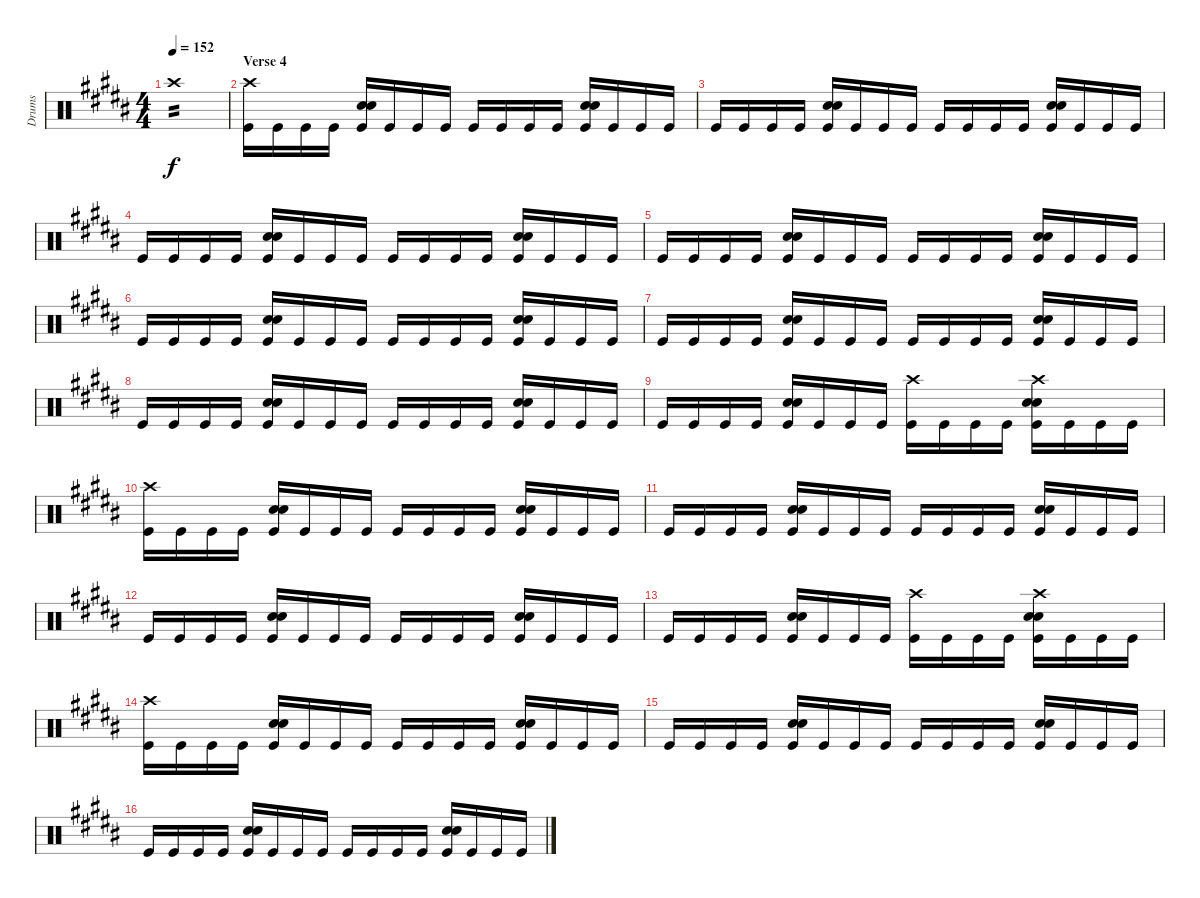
\track ("Drums" "Drums") {instrument percussion}
\staff {score}
\articulation defaults
\ts (4 4)
\tempo 152
\clef neutral
\ks b "Crash high (hit)".1{tp 2 dy f volume 16}
|
\section ("" "Verse 4")
("Crash high (hit)" "Kick (hit)").16 "Kick (hit)".16 "Kick (hit)".16 "Kick (hit)".16 ("Snare (hit) 2" "Electric Snare (hit)" "Kick (hit)").16 "Kick (hit)".16 "Kick (hit)".16 "Kick (hit)".16 "Kick (hit)".16 "Kick (hit)".16 "Kick (hit)".16 "Kick (hit)".16 ("Snare (hit) 2" "Electric Snare (hit)" "Kick (hit)").16 "Kick (hit)".16 "Kick (hit)".16 "Kick (hit)".16 |
"Kick (hit)".16 "Kick (hit)".16 "Kick (hit)".16 "Kick (hit)".16 ("Snare (hit) 2" "Electric Snare (hit)" "Kick (hit)").16 "Kick (hit)".16 "Kick (hit)".16 "Kick (hit)".16 "Kick (hit)".16 "Kick (hit)".16 "Kick (hit)".16 "Kick (hit)".16 ("Snare (hit) 2" "Electric Snare (hit)" "Kick (hit)").16 "Kick (hit)".16 "Kick (hit)".16 "Kick (hit)".16 |
"Kick (hit)".16 "Kick (hit)".16 "Kick (hit)".16 "Kick (hit)".16 ("Snare (hit) 2" "Electric Snare (hit)" "Kick (hit)").16 "Kick (hit)".16 "Kick (hit)".16 "Kick (hit)".16 "Kick (hit)".16 "Kick (hit)".16 "Kick (hit)".16 "Kick (hit)".16 ("Snare (hit) 2" "Electric Snare (hit)" "Kick (hit)").16 "Kick (hit)".16 "Kick (hit)".16 "Kick (hit)".16 |
"Kick (hit)".16 "Kick (hit)".16 "Kick (hit)".16 "Kick (hit)".16 ("Snare (hit) 2" "Electric Snare (hit)" "Kick (hit)").16 "Kick (hit)".16 "Kick (hit)".16 "Kick (hit)".16 "Kick (hit)".16 "Kick (hit)".16 "Kick (hit)".16 "Kick (hit)".16 ("Snare (hit) 2" "Electric Snare (hit)" "Kick (hit)").16 "Kick (hit)".16 "Kick (hit)".16 "Kick (hit)".16 |
"Kick (hit)".16 "Kick (hit)".16 "Kick (hit)".16 "Kick (hit)".16 ("Snare (hit) 2" "Electric Snare (hit)" "Kick (hit)").16 "Kick (hit)".16 "Kick (hit)".16 "Kick (hit)".16 "Kick (hit)".16 "Kick (hit)".16 "Kick (hit)".16 "Kick (hit)".16 ("Snare (hit) 2" "Electric Snare (hit)" "Kick (hit)").16 "Kick (hit)".16 "Kick (hit)".16 "Kick (hit)".16 |
"Kick (hit)".16 "Kick (hit)".16 "Kick (hit)".16 "Kick (hit)".16 ("Snare (hit) 2" "Electric Snare (hit)" "Kick (hit)").16 "Kick (hit)".16 "Kick (hit)".16 "Kick (hit)".16 "Kick (hit)".16 "Kick (hit)".16 "Kick (hit)".16 "Kick (hit)".16 ("Snare (hit) 2" "Electric Snare (hit)" "Kick (hit)").16 "Kick (hit)".16 "Kick (hit)".16 "Kick (hit)".16 |
"Kick (hit)".16 "Kick (hit)".16 "Kick (hit)".16 "Kick (hit)".16 ("Snare (hit) 2" "Electric Snare (hit)" "Kick (hit)").16 "Kick (hit)".16 "Kick (hit)".16 "Kick (hit)".16 "Kick (hit)".16 "Kick (hit)".16 "Kick (hit)".16 "Kick (hit)".16 ("Snare (hit) 2" "Electric Snare (hit)" "Kick (hit)").16 "Kick (hit)".16 "Kick (hit)".16 "Kick (hit)".16 |
"Kick (hit)".16 "Kick (hit)".16 "Kick (hit)".16 "Kick (hit)".16 ("Snare (hit) 2" "Electric Snare (hit)" "Kick (hit)").16 "Kick (hit)".16 "Kick (hit)".16 "Kick (hit)".16 ("Crash high (hit)" "Kick (hit)").16 "Kick (hit)".16 "Kick (hit)".16 "Kick (hit)".16 ("Crash high (hit)" "Snare (hit) 2" "Electric Snare (hit)" "Kick (hit)").16 "Kick (hit)".16 "Kick (hit)".16 "Kick (hit)".16 |
("Crash high (hit)" "Kick (hit)").16 "Kick (hit)".16 "Kick (hit)".16 "Kick (hit)".16 ("Snare (hit) 2" "Electric Snare (hit)" "Kick (hit)").16 "Kick (hit)".16 "Kick (hit)".16 "Kick (hit)".16 "Kick (hit)".16 "Kick (hit)".16 "Kick (hit)".16 "Kick (hit)".16 ("Snare (hit) 2" "Electric Snare (hit)" "Kick (hit)").16 "Kick (hit)".16 "Kick (hit)".16 "Kick (hit)".16 |
"Kick (hit)".16 "Kick (hit)".16 "Kick (hit)".16 "Kick (hit)".16 ("Snare (hit) 2" "Electric Snare (hit)" "Kick (hit)").16 "Kick (hit)".16 "Kick (hit)".16 "Kick (hit)".16 "Kick (hit)".16 "Kick (hit)".16 "Kick (hit)".16 "Kick (hit)".16 ("Snare (hit) 2" "Electric Snare (hit)" "Kick (hit)").16 "Kick (hit)".16 "Kick (hit)".16 "Kick (hit)".16 |
"Kick (hit)".16 "Kick (hit)".16 "Kick (hit)".16 "Kick (hit)".16 ("Snare (hit) 2" "Electric Snare (hit)" "Kick (hit)").16 "Kick (hit)".16 "Kick (hit)".16 "Kick (hit)".16 "Kick (hit)".16 "Kick (hit)".16 "Kick (hit)".16 "Kick (hit)".16 ("Snare (hit) 2" "Electric Snare (hit)" "Kick (hit)").16 "Kick (hit)".16 "Kick (hit)".16 "Kick (hit)".16 |
"Kick (hit)".16 "Kick (hit)".16 "Kick (hit)".16 "Kick (hit)".16 ("Snare (hit) 2" "Electric Snare (hit)" "Kick (hit)").16 "Kick (hit)".16 "Kick (hit)".16 "Kick (hit)".16 ("Crash high (hit)" "Kick (hit)").16 "Kick (hit)".16 "Kick (hit)".16 "Kick (hit)".16 ("Crash high (hit)" "Snare (hit) 2" "Electric Snare (hit)" "Kick (hit)").16 "Kick (hit)".16 "Kick (hit)".16 "Kick (hit)".16 |
("Crash high (hit)" "Kick (hit)").16 "Kick (hit)".16 "Kick (hit)".16 "Kick (hit)".16 ("Snare (hit) 2" "Electric Snare (hit)" "Kick (hit)").16 "Kick (hit)".16 "Kick (hit)".16 "Kick (hit)".16 "Kick (hit)".16 "Kick (hit)".16 "Kick (hit)".16 "Kick (hit)".16 ("Snare (hit) 2" "Electric Snare (hit)" "Kick (hit)").16 "Kick (hit)".16 "Kick (hit)".16 "Kick (hit)".16 |
"Kick (hit)".16 "Kick (hit)".16 "Kick (hit)".16 "Kick (hit)".16 ("Snare (hit) 2" "Electric Snare (hit)" "Kick (hit)").16 "Kick (hit)".16 "Kick (hit)".16 "Kick (hit)".16 "Kick (hit)".16 "Kick (hit)".16 "Kick (hit)".16 "Kick (hit)".16 ("Snare (hit) 2" "Electric Snare (hit)" "Kick (hit)").16 "Kick (hit)".16 "Kick (hit)".16 "Kick (hit)".16 |
"Kick (hit)".16 "Kick (hit)".16 "Kick (hit)".16 "Kick (hit)".16 ("Snare (hit) 2" "Electric Snare (hit)" "Kick (hit)").16 "Kick (hit)".16 "Kick (hit)".16 "Kick (hit)".16 "Kick (hit)".16 "Kick (hit)".16 "Kick (hit)".16 "Kick (hit)".16 ("Snare (hit) 2" "Electric Snare (hit)" "Kick (hit)").16 "Kick (hit)".16 "Kick (hit)".16 "Kick (hit)".16
